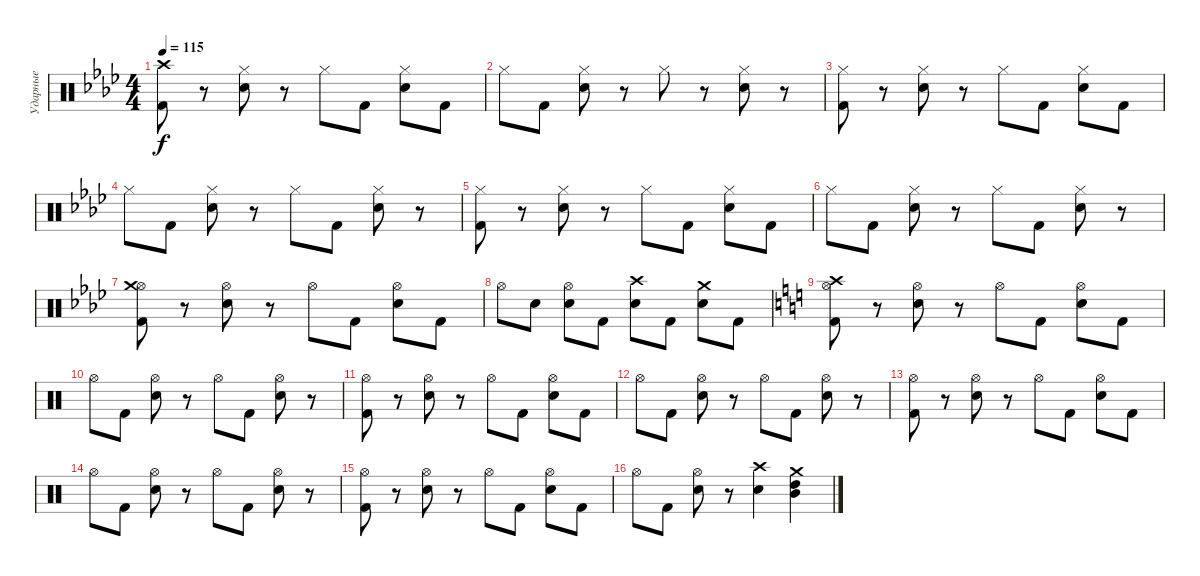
\track ("Ударные" "Ударные") {instrument percussion}
\staff {score}
\articulation defaults
\ts (4 4)
\tempo 115
\clef neutral
\ks ab
("Crash high (hit)" "Kick (hit) 2").8{dy f} r.8 ("Hi-Hat (closed)" "Snare (hit) 2").8 r.8 "Hi-Hat (closed)".8 "Kick (hit) 2".8 ("Hi-Hat (closed)" "Snare (hit) 2").8 "Kick (hit) 2".8 |
"Hi-Hat (closed)".8 "Kick (hit) 2".8 ("Hi-Hat (closed)" "Snare (hit) 2").8 r.8 "Hi-Hat (closed)".8 r.8 ("Hi-Hat (closed)" "Snare (hit) 2").8 r.8 |
("Hi-Hat (closed)" "Kick (hit) 2").8 r.8 ("Hi-Hat (closed)" "Snare (hit) 2").8 r.8 "Hi-Hat (closed)".8 "Kick (hit) 2".8 ("Hi-Hat (closed)" "Snare (hit) 2").8 "Kick (hit) 2".8 |
"Hi-Hat (closed)".8 "Kick (hit) 2".8 ("Hi-Hat (closed)" "Snare (hit) 2").8 r.8 "Hi-Hat (closed)".8 "Kick (hit) 2".8 ("Hi-Hat (closed)" "Snare (hit) 2").8 r.8 |
("Hi-Hat (closed)" "Kick (hit) 2").8 r.8 ("Hi-Hat (closed)" "Snare (hit) 2").8 r.8 "Hi-Hat (closed)".8 "Kick (hit) 2".8 ("Hi-Hat (closed)" "Snare (hit) 2").8 "Kick (hit) 2".8 |
"Hi-Hat (closed)".8 "Kick (hit) 2".8 ("Hi-Hat (closed)" "Snare (hit) 2").8 r.8 "Hi-Hat (closed)".8 "Kick (hit) 2".8 ("Hi-Hat (closed)" "Snare (hit) 2").8 r.8 |
("Hi-Hat (open)" "Kick (hit) 2" "Crash medium (hit)").8 r.8 ("Hi-Hat (open)" "Snare (hit) 2").8 r.8 "Hi-Hat (open)".8 "Kick (hit) 2".8 ("Hi-Hat (open)" "Snare (hit) 2").8 "Kick (hit) 2".8 |
"Hi-Hat (open)".8 "Snare (hit) 2".8 ("Hi-Hat (open)" "Snare (hit) 2").8 "Kick (hit) 2".8 ("Crash high (hit)" "Snare (hit) 2").8 "Kick (hit) 2".8 ("Crash medium (hit)" "Snare (hit) 2").8 "Kick (hit) 2".8 |
\ks c
("Hi-Hat (open)" "Crash high (hit)" "Kick (hit) 2").8 r.8 ("Hi-Hat (open)" "Snare (hit) 2").8 r.8 "Hi-Hat (open)".8 "Kick (hit) 2".8 ("Hi-Hat (open)" "Snare (hit) 2").8 "Kick (hit) 2".8 |
"Hi-Hat (open)".8 "Kick (hit) 2".8 ("Hi-Hat (open)" "Snare (hit) 2").8 r.8 "Hi-Hat (open)".8 "Kick (hit) 2".8 ("Hi-Hat (open)" "Snare (hit) 2").8 r.8 |
("Hi-Hat (open)" "Kick (hit) 2").8 r.8 ("Hi-Hat (open)" "Snare (hit) 2").8 r.8 "Hi-Hat (open)".8 "Kick (hit) 2".8 ("Hi-Hat (open)" "Snare (hit) 2").8 "Kick (hit) 2".8 |
"Hi-Hat (open)".8 "Kick (hit) 2".8 ("Hi-Hat (open)" "Snare (hit) 2").8 r.8 "Hi-Hat (open)".8 "Kick (hit) 2".8 ("Hi-Hat (open)" "Snare (hit) 2").8 r.8 |
("Hi-Hat (open)" "Kick (hit) 2").8 r.8 ("Hi-Hat (open)" "Snare (hit) 2").8 r.8 "Hi-Hat (open)".8 "Kick (hit) 2".8 ("Hi-Hat (open)" "Snare (hit) 2").8 "Kick (hit) 2".8 |
"Hi-Hat (open)".8 "Kick (hit) 2".8 ("Hi-Hat (open)" "Snare (hit) 2").8 r.8 "Hi-Hat (open)".8 "Kick (hit) 2".8 ("Hi-Hat (open)" "Snare (hit) 2").8 r.8 |
("Hi-Hat (open)" "Kick (hit) 2").8 r.8 ("Hi-Hat (open)" "Snare (hit) 2").8 r.8 "Hi-Hat (open)".8 "Kick (hit) 2".8 ("Hi-Hat (open)" "Snare (hit) 2").8 "Kick (hit) 2".8 |
"Hi-Hat (open)".8 "Kick (hit) 2".8 ("Hi-Hat (open)" "Snare (hit) 2").8 r.8 ("Crash high (hit)" "Snare (hit) 2").4 ("Crash medium (hit)" "Mid Tom (hit)" "High Tom (hit)").4
